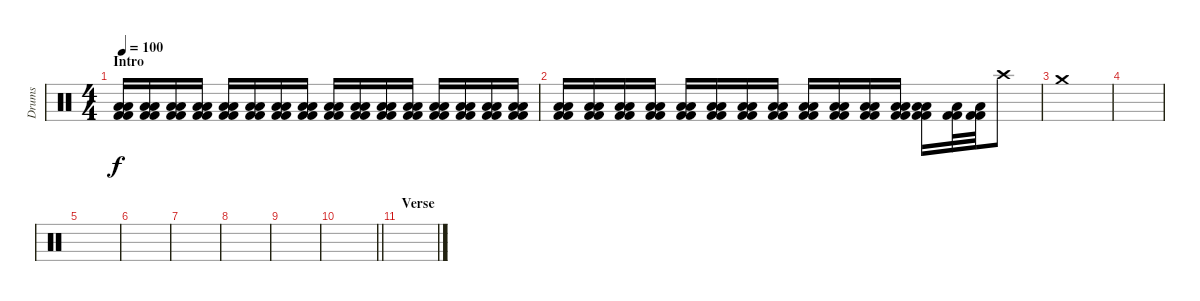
\track ("Drums" "Drums") {instrument percussion}
\staff {score}
\articulation defaults
\ts (4 4)
\section ("" "Intro")
\tempo 100
\clef neutral
\ks c
("Low Floor Tom (hit)" "Low Tom (hit)" "Kick (hit) 2" "Kick (hit) 2").16{dy f} ("Low Floor Tom (hit)" "Low Tom (hit)" "Kick (hit) 2" "Kick (hit) 2").16 ("Low Floor Tom (hit)" "Low Tom (hit)" "Kick (hit) 2" "Kick (hit) 2").16 ("Low Floor Tom (hit)" "Low Tom (hit)" "Kick (hit) 2" "Kick (hit) 2").16 ("Low Floor Tom (hit)" "Low Tom (hit)" "Kick (hit) 2" "Kick (hit) 2").16 ("Low Floor Tom (hit)" "Low Tom (hit)" "Kick (hit) 2" "Kick (hit) 2").16 ("Low Floor Tom (hit)" "Low Tom (hit)" "Kick (hit) 2" "Kick (hit) 2").16 ("Low Floor Tom (hit)" "Low Tom (hit)" "Kick (hit) 2" "Kick (hit) 2").16 ("Low Floor Tom (hit)" "Low Tom (hit)" "Kick (hit) 2" "Kick (hit) 2").16 ("Low Floor Tom (hit)" "Low Tom (hit)" "Kick (hit) 2" "Kick (hit) 2").16 ("Low Floor Tom (hit)" "Low Tom (hit)" "Kick (hit) 2" "Kick (hit) 2").16 ("Low Floor Tom (hit)" "Low Tom (hit)" "Kick (hit) 2" "Kick (hit) 2").16 ("Low Floor Tom (hit)" "Low Tom (hit)" "Kick (hit) 2" "Kick (hit) 2").16 ("Low Floor Tom (hit)" "Low Tom (hit)" "Kick (hit) 2" "Kick (hit) 2").16 ("Low Floor Tom (hit)" "Low Tom (hit)" "Kick (hit) 2" "Kick (hit) 2").16 ("Low Floor Tom (hit)" "Low Tom (hit)" "Kick (hit) 2" "Kick (hit) 2").16 |
("Low Floor Tom (hit)" "Low Tom (hit)" "Kick (hit) 2" "Kick (hit) 2").16 ("Low Floor Tom (hit)" "Low Tom (hit)" "Kick (hit) 2" "Kick (hit) 2").16 ("Low Floor Tom (hit)" "Low Tom (hit)" "Kick (hit) 2" "Kick (hit) 2").16 ("Low Floor Tom (hit)" "Low Tom (hit)" "Kick (hit) 2" "Kick (hit) 2").16 ("Low Floor Tom (hit)" "Low Tom (hit)" "Kick (hit) 2" "Kick (hit) 2").16 ("Low Floor Tom (hit)" "Low Tom (hit)" "Kick (hit) 2" "Kick (hit) 2").16 ("Low Floor Tom (hit)" "Low Tom (hit)" "Kick (hit) 2" "Kick (hit) 2").16 ("Low Floor Tom (hit)" "Low Tom (hit)" "Kick (hit) 2" "Kick (hit) 2").16 ("Low Floor Tom (hit)" "Low Tom (hit)" "Kick (hit) 2" "Kick (hit) 2").16 ("Low Floor Tom (hit)" "Low Tom (hit)" "Kick (hit) 2" "Kick (hit) 2").16 ("Low Floor Tom (hit)" "Low Tom (hit)" "Kick (hit) 2" "Kick (hit) 2").16 ("Low Floor Tom (hit)" "Low Tom (hit)" "Kick (hit) 2" "Kick (hit) 2").16 ("Low Floor Tom (hit)" "Low Tom (hit)" "Kick (hit) 2" "Kick (hit) 2").16 ("Low Tom (hit)" "Kick (hit) 2" "Kick (hit) 2").32 ("Low Tom (hit)" "Kick (hit) 2" "Kick (hit) 2").32 "Crash high (hit)".8 |
"Crash medium (hit)".1 |
|
|
|
|
|
|
\barLineRight lightlight
|
\section ("" "Verse")
